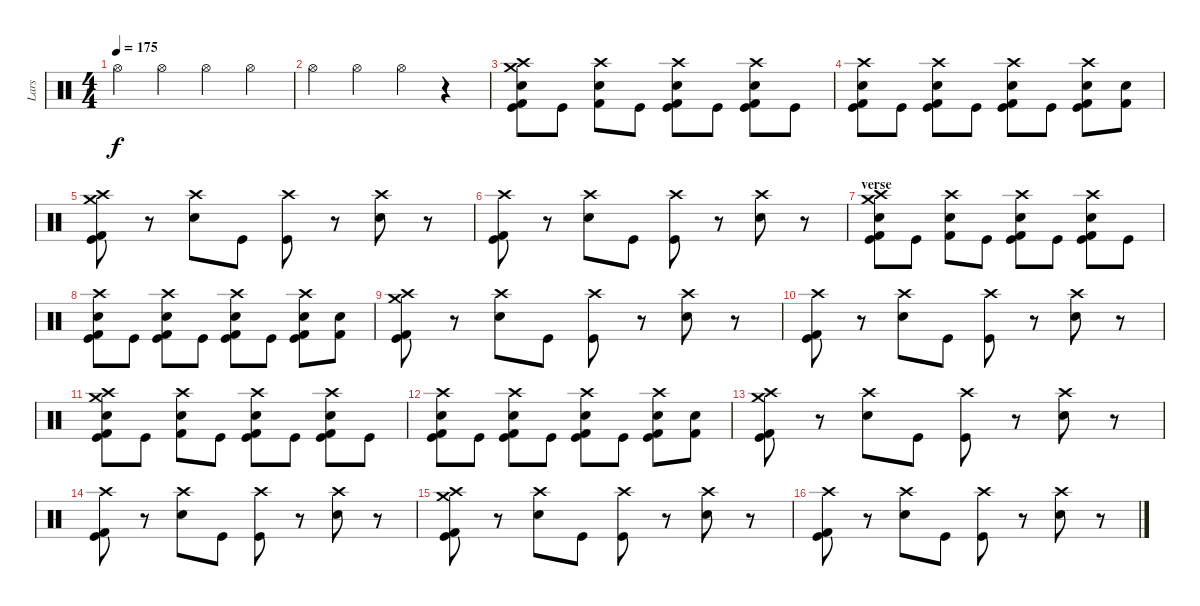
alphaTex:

\track ("Lars" "Lars") {instrument percussion}
\staff {score}
\articulation defaults
\ts (4 4)
\tempo 175
\clef neutral
\ks c "Hi-Hat (open)".4{dy f} "Hi-Hat (open)".4 "Hi-Hat (open)".4 "Hi-Hat (open)".4
|
"Hi-Hat (open)".4 "Hi-Hat (open)".4 "Hi-Hat (open)".4 r.4 |
("Crash high (hit)" "Snare (hit) 2" "Crash medium (hit)" "Kick (hit) 2" "Kick (hit)").8 "Kick (hit)".8 ("Crash high (hit)" "Snare (hit) 2" "Kick (hit) 2").8 "Kick (hit)".8 ("Crash high (hit)" "Snare (hit) 2" "Kick (hit) 2" "Kick (hit)").8 "Kick (hit)".8 ("Crash high (hit)" "Snare (hit) 2" "Kick (hit) 2" "Kick (hit)").8 "Kick (hit)".8 |
("Crash high (hit)" "Snare (hit) 2" "Kick (hit) 2" "Kick (hit)").8 "Kick (hit)".8 ("Crash high (hit)" "Snare (hit) 2" "Kick (hit) 2" "Kick (hit)").8 "Kick (hit)".8 ("Crash high (hit)" "Snare (hit) 2" "Kick (hit) 2" "Kick (hit)").8 "Kick (hit)".8 ("Crash high (hit)" "Snare (hit) 2" "Kick (hit) 2" "Kick (hit)").8 ("Snare (hit) 2" "Kick (hit) 2").8 |
("Crash high (hit)" "Crash medium (hit)" "Kick (hit) 2" "Kick (hit)").8 r.8 ("Crash high (hit)" "Snare (hit) 2").8 "Kick (hit)".8 ("Crash high (hit)" "Kick (hit)").8 r.8 ("Crash high (hit)" "Snare (hit) 2").8 r.8 |
("Crash high (hit)" "Kick (hit) 2" "Kick (hit)").8 r.8 ("Crash high (hit)" "Snare (hit) 2").8 "Kick (hit)".8 ("Crash high (hit)" "Kick (hit)").8 r.8 ("Crash high (hit)" "Snare (hit) 2").8 r.8 |
\section ("" "verse")
("Crash high (hit)" "Snare (hit) 2" "Crash medium (hit)" "Kick (hit) 2" "Kick (hit)").8 "Kick (hit)".8 ("Crash high (hit)" "Snare (hit) 2" "Kick (hit) 2").8 "Kick (hit)".8 ("Crash high (hit)" "Snare (hit) 2" "Kick (hit) 2" "Kick (hit)").8 "Kick (hit)".8 ("Crash high (hit)" "Snare (hit) 2" "Kick (hit) 2" "Kick (hit)").8 "Kick (hit)".8 |
("Crash high (hit)" "Snare (hit) 2" "Kick (hit) 2" "Kick (hit)").8 "Kick (hit)".8 ("Crash high (hit)" "Snare (hit) 2" "Kick (hit) 2" "Kick (hit)").8 "Kick (hit)".8 ("Crash high (hit)" "Snare (hit) 2" "Kick (hit) 2" "Kick (hit)").8 "Kick (hit)".8 ("Crash high (hit)" "Snare (hit) 2" "Kick (hit) 2" "Kick (hit)").8 ("Snare (hit) 2" "Kick (hit) 2").8 |
("Crash high (hit)" "Crash medium (hit)" "Kick (hit) 2" "Kick (hit)").8 r.8 ("Crash high (hit)" "Snare (hit) 2").8 "Kick (hit)".8 ("Crash high (hit)" "Kick (hit)").8 r.8 ("Crash high (hit)" "Snare (hit) 2").8 r.8 |
("Crash high (hit)" "Kick (hit) 2" "Kick (hit)").8 r.8 ("Crash high (hit)" "Snare (hit) 2").8 "Kick (hit)".8 ("Crash high (hit)" "Kick (hit)").8 r.8 ("Crash high (hit)" "Snare (hit) 2").8 r.8 |
("Crash high (hit)" "Snare (hit) 2" "Crash medium (hit)" "Kick (hit) 2" "Kick (hit)").8 "Kick (hit)".8 ("Crash high (hit)" "Snare (hit) 2" "Kick (hit) 2").8 "Kick (hit)".8 ("Crash high (hit)" "Snare (hit) 2" "Kick (hit) 2" "Kick (hit)").8 "Kick (hit)".8 ("Crash high (hit)" "Snare (hit) 2" "Kick (hit) 2" "Kick (hit)").8 "Kick (hit)".8 |
("Crash high (hit)" "Snare (hit) 2" "Kick (hit) 2" "Kick (hit)").8 "Kick (hit)".8 ("Crash high (hit)" "Snare (hit) 2" "Kick (hit) 2" "Kick (hit)").8 "Kick (hit)".8 ("Crash high (hit)" "Snare (hit) 2" "Kick (hit) 2" "Kick (hit)").8 "Kick (hit)".8 ("Crash high (hit)" "Snare (hit) 2" "Kick (hit) 2" "Kick (hit)").8 ("Snare (hit) 2" "Kick (hit) 2").8 |
("Crash high (hit)" "Crash medium (hit)" "Kick (hit) 2" "Kick (hit)").8 r.8 ("Crash high (hit)" "Snare (hit) 2").8 "Kick (hit)".8 ("Crash high (hit)" "Kick (hit)").8 r.8 ("Crash high (hit)" "Snare (hit) 2").8 r.8 |
("Crash high (hit)" "Kick (hit) 2" "Kick (hit)").8 r.8 ("Crash high (hit)" "Snare (hit) 2").8 "Kick (hit)".8 ("Crash high (hit)" "Kick (hit)").8 r.8 ("Crash high (hit)" "Snare (hit) 2").8 r.8 |
("Crash high (hit)" "Crash medium (hit)" "Kick (hit) 2" "Kick (hit)").8 r.8 ("Crash high (hit)" "Snare (hit) 2").8 "Kick (hit)".8 ("Crash high (hit)" "Kick (hit)").8 r.8 ("Crash high (hit)" "Snare (hit) 2").8 r.8 |
("Crash high (hit)" "Kick (hit) 2" "Kick (hit)").8 r.8 ("Crash high (hit)" "Snare (hit) 2").8 "Kick (hit)".8 ("Crash high (hit)" "Kick (hit)").8 r.8 ("Crash high (hit)" "Snare (hit) 2").8 r.8
